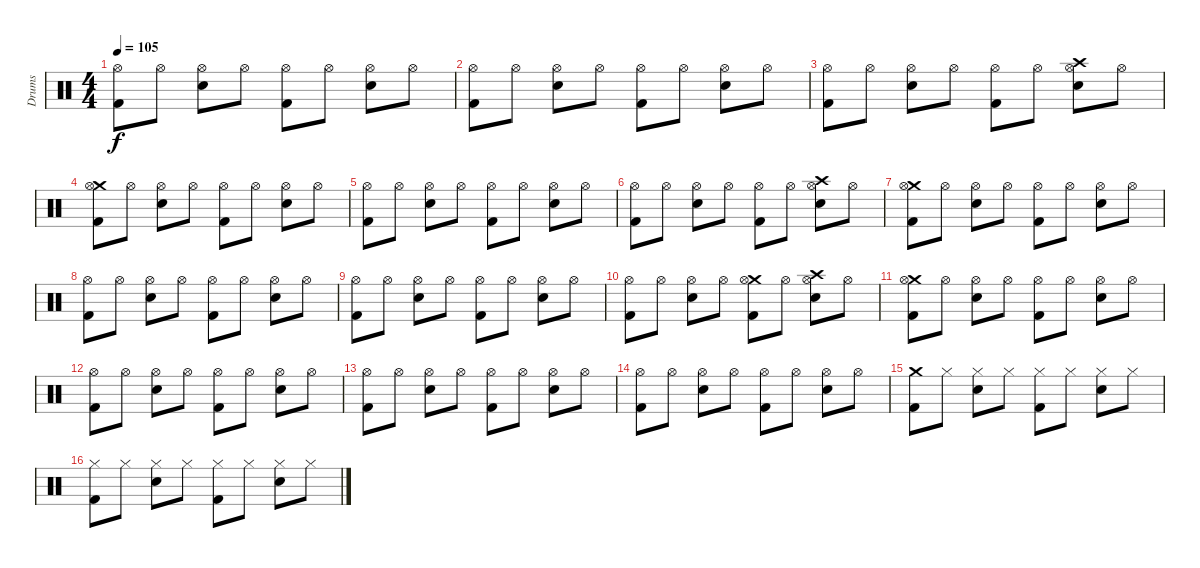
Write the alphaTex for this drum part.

\track ("Drums" "Drums") {instrument percussion}
\staff {score}
\articulation defaults
\ts (4 4)
\tempo 105
\clef neutral
\ks c
("Hi-Hat (open)" "Kick (hit) 2").8{dy f} "Hi-Hat (open)".8 ("Hi-Hat (open)" "Electric Snare (hit)").8 "Hi-Hat (open)".8 ("Hi-Hat (open)" "Kick (hit) 2").8 "Hi-Hat (open)".8 ("Hi-Hat (open)" "Electric Snare (hit)").8 "Hi-Hat (open)".8 |
("Hi-Hat (open)" "Kick (hit) 2").8 "Hi-Hat (open)".8 ("Hi-Hat (open)" "Electric Snare (hit)").8 "Hi-Hat (open)".8 ("Hi-Hat (open)" "Kick (hit) 2").8 "Hi-Hat (open)".8 ("Hi-Hat (open)" "Electric Snare (hit)").8 "Hi-Hat (open)".8 |
("Hi-Hat (open)" "Kick (hit) 2").8 "Hi-Hat (open)".8 ("Hi-Hat (open)" "Electric Snare (hit)").8 "Hi-Hat (open)".8 ("Hi-Hat (open)" "Kick (hit) 2").8 "Hi-Hat (open)".8 ("Crash high (hit)" "Hi-Hat (open)" "Electric Snare (hit)").8 "Hi-Hat (open)".8 |
("Crash medium (hit)" "Hi-Hat (open)" "Kick (hit) 2").8 "Hi-Hat (open)".8 ("Hi-Hat (open)" "Electric Snare (hit)").8 "Hi-Hat (open)".8 ("Hi-Hat (open)" "Kick (hit) 2").8 "Hi-Hat (open)".8 ("Hi-Hat (open)" "Electric Snare (hit)").8 "Hi-Hat (open)".8 |
("Hi-Hat (open)" "Kick (hit) 2").8 "Hi-Hat (open)".8 ("Hi-Hat (open)" "Electric Snare (hit)").8 "Hi-Hat (open)".8 ("Hi-Hat (open)" "Kick (hit) 2").8 "Hi-Hat (open)".8 ("Hi-Hat (open)" "Electric Snare (hit)").8 "Hi-Hat (open)".8 |
("Hi-Hat (open)" "Kick (hit) 2").8 "Hi-Hat (open)".8 ("Hi-Hat (open)" "Electric Snare (hit)").8 "Hi-Hat (open)".8 ("Hi-Hat (open)" "Kick (hit) 2").8 "Hi-Hat (open)".8 ("Crash high (hit)" "Hi-Hat (open)" "Electric Snare (hit)").8 "Hi-Hat (open)".8 |
("Crash medium (hit)" "Hi-Hat (open)" "Kick (hit) 2").8 "Hi-Hat (open)".8 ("Hi-Hat (open)" "Electric Snare (hit)").8 "Hi-Hat (open)".8 ("Hi-Hat (open)" "Kick (hit) 2").8 "Hi-Hat (open)".8 ("Hi-Hat (open)" "Electric Snare (hit)").8 "Hi-Hat (open)".8 |
("Hi-Hat (open)" "Kick (hit) 2").8 "Hi-Hat (open)".8 ("Hi-Hat (open)" "Electric Snare (hit)").8 "Hi-Hat (open)".8 ("Hi-Hat (open)" "Kick (hit) 2").8 "Hi-Hat (open)".8 ("Hi-Hat (open)" "Electric Snare (hit)").8 "Hi-Hat (open)".8 |
("Hi-Hat (open)" "Kick (hit) 2").8 "Hi-Hat (open)".8 ("Hi-Hat (open)" "Electric Snare (hit)").8 "Hi-Hat (open)".8 ("Hi-Hat (open)" "Kick (hit) 2").8 "Hi-Hat (open)".8 ("Hi-Hat (open)" "Electric Snare (hit)").8 "Hi-Hat (open)".8 |
("Hi-Hat (open)" "Kick (hit) 2").8 "Hi-Hat (open)".8 ("Hi-Hat (open)" "Electric Snare (hit)").8 "Hi-Hat (open)".8 ("Crash medium (hit)" "Hi-Hat (open)" "Kick (hit) 2").8 "Hi-Hat (open)".8 ("Crash high (hit)" "Hi-Hat (open)" "Electric Snare (hit)").8 "Hi-Hat (open)".8 |
("Crash medium (hit)" "Hi-Hat (open)" "Kick (hit) 2").8 "Hi-Hat (open)".8 ("Hi-Hat (open)" "Electric Snare (hit)").8 "Hi-Hat (open)".8 ("Hi-Hat (open)" "Kick (hit) 2").8 "Hi-Hat (open)".8 ("Hi-Hat (open)" "Electric Snare (hit)").8 "Hi-Hat (open)".8 |
("Hi-Hat (open)" "Kick (hit) 2").8 "Hi-Hat (open)".8 ("Hi-Hat (open)" "Electric Snare (hit)").8 "Hi-Hat (open)".8 ("Hi-Hat (open)" "Kick (hit) 2").8 "Hi-Hat (open)".8 ("Hi-Hat (open)" "Electric Snare (hit)").8 "Hi-Hat (open)".8 |
("Hi-Hat (open)" "Kick (hit) 2").8 "Hi-Hat (open)".8 ("Hi-Hat (open)" "Electric Snare (hit)").8 "Hi-Hat (open)".8 ("Hi-Hat (open)" "Kick (hit) 2").8 "Hi-Hat (open)".8 ("Hi-Hat (open)" "Electric Snare (hit)").8 "Hi-Hat (open)".8 |
("Hi-Hat (open)" "Kick (hit) 2").8 "Hi-Hat (open)".8 ("Hi-Hat (open)" "Electric Snare (hit)").8 "Hi-Hat (open)".8 ("Hi-Hat (open)" "Kick (hit) 2").8 "Hi-Hat (open)".8 ("Hi-Hat (open)" "Electric Snare (hit)").8 "Hi-Hat (open)".8 |
("Crash medium (hit)" "Kick (hit) 2").8 "Hi-Hat (closed)".8 ("Hi-Hat (closed)" "Electric Snare (hit)").8 "Hi-Hat (closed)".8 ("Hi-Hat (closed)" "Kick (hit) 2").8 "Hi-Hat (closed)".8 ("Hi-Hat (closed)" "Electric Snare (hit)").8 "Hi-Hat (closed)".8 |
("Hi-Hat (closed)" "Kick (hit) 2").8 "Hi-Hat (closed)".8 ("Hi-Hat (closed)" "Electric Snare (hit)").8 "Hi-Hat (closed)".8 ("Hi-Hat (closed)" "Kick (hit) 2").8 "Hi-Hat (closed)".8 ("Hi-Hat (closed)" "Electric Snare (hit)").8 "Hi-Hat (closed)".8
